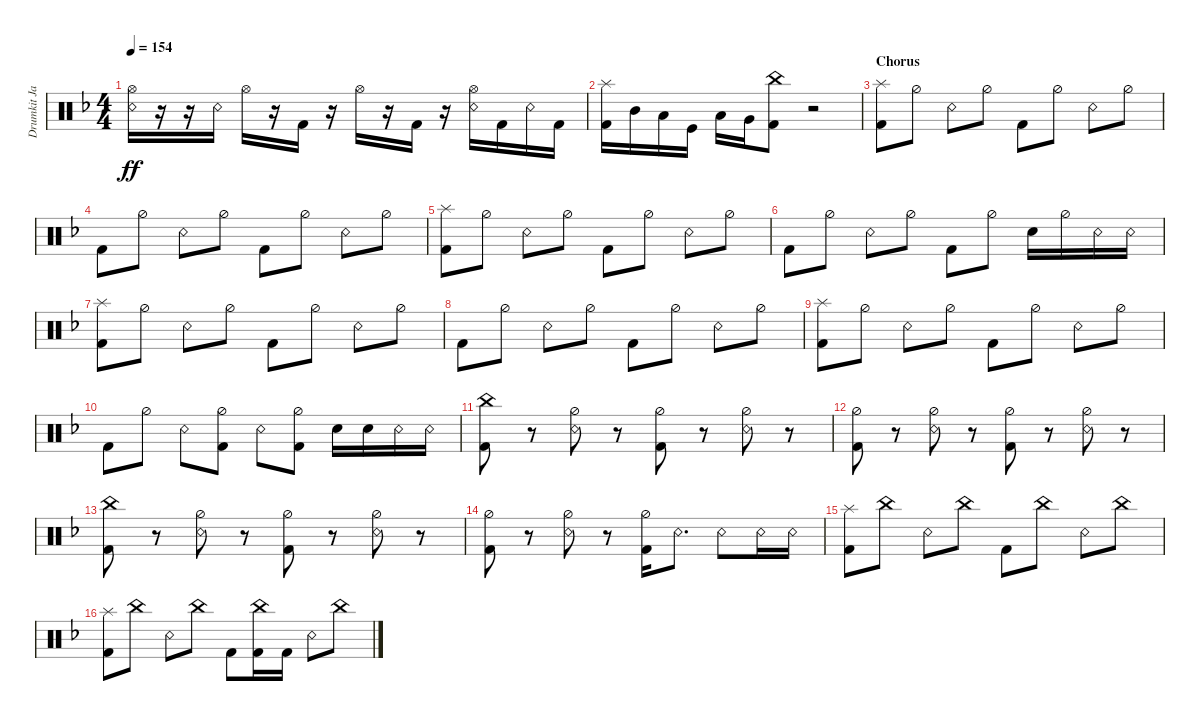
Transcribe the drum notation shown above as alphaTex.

\track ("Drumkit Jason" "Drumkit Ja") {instrument percussion}
\staff {score}
\articulation defaults
\ts (4 4)
\tempo 154
\clef neutral
\ks dminor
("Hi-Hat (open)" "Snare (rim shot)").16{dy ff} r.16 r.16 "Snare (rim shot)".16 "Hi-Hat (open)".16 r.16 "Kick (hit) 2".16 r.16 "Hi-Hat (open)".16 r.16 "Kick (hit) 2".16 r.16 ("Hi-Hat (open)" "Snare (rim shot)").16 "Kick (hit) 2".16 "Snare (rim shot)".16 "Kick (hit) 2".16 |
("Splash (hit)" "Kick (hit) 2").16 "Mid Tom (hit)".16 "Low Tom (hit)".16 "Kick (hit)".16 "Low Tom (hit)".16 "Very Low Tom (hit)".16 ("China (hit)" "Kick (hit) 2").8 r.2 |
\section ("" "Chorus")
("Kick (hit) 2" "Splash (hit)").8 "Hi-Hat (half)".8 "Snare (rim shot)".8 "Hi-Hat (half)".8 "Kick (hit) 2".8 "Hi-Hat (half)".8 "Snare (rim shot)".8 "Hi-Hat (half)".8 |
"Kick (hit) 2".8 "Hi-Hat (half)".8 "Snare (rim shot)".8 "Hi-Hat (half)".8 "Kick (hit) 2".8 "Hi-Hat (half)".8 "Snare (rim shot)".8 "Hi-Hat (half)".8 |
("Kick (hit) 2" "Splash (hit)").8 "Hi-Hat (half)".8 "Snare (rim shot)".8 "Hi-Hat (half)".8 "Kick (hit) 2".8 "Hi-Hat (half)".8 "Snare (rim shot)".8 "Hi-Hat (half)".8 |
"Kick (hit) 2".8 "Hi-Hat (half)".8 "Snare (rim shot)".8 "Hi-Hat (half)".8 "Kick (hit) 2".8 "Hi-Hat (half)".8 "Snare (hit) 2".16 "Hi-Hat (half)".16 "Snare (rim shot)".16 "Snare (rim shot)".16 |
("Kick (hit) 2" "Splash (hit)").8 "Hi-Hat (half)".8 "Snare (rim shot)".8 "Hi-Hat (half)".8 "Kick (hit) 2".8 "Hi-Hat (half)".8 "Snare (rim shot)".8 "Hi-Hat (half)".8 |
"Kick (hit) 2".8 "Hi-Hat (half)".8 "Snare (rim shot)".8 "Hi-Hat (half)".8 "Kick (hit) 2".8 "Hi-Hat (half)".8 "Snare (rim shot)".8 "Hi-Hat (half)".8 |
("Kick (hit) 2" "Splash (hit)").8 "Hi-Hat (half)".8 "Snare (rim shot)".8 "Hi-Hat (half)".8 "Kick (hit) 2".8 "Hi-Hat (half)".8 "Snare (rim shot)".8 "Hi-Hat (half)".8 |
"Kick (hit) 2".8 "Hi-Hat (half)".8 "Snare (rim shot)".8 ("Hi-Hat (half)" "Kick (hit) 2").8 "Snare (rim shot)".8 ("Hi-Hat (half)" "Kick (hit) 2").8 "Snare (hit) 2".16 "Snare (hit) 2".16 "Snare (rim shot)".16 "Snare (rim shot)".16 |
("China (hit)" "Kick (hit) 2").8 r.8 ("Hi-Hat (half)" "Snare (rim shot)").8 r.8 ("Hi-Hat (half)" "Kick (hit) 2").8 r.8 ("Hi-Hat (half)" "Snare (rim shot)").8 r.8 |
("Hi-Hat (half)" "Kick (hit) 2").8 r.8 ("Hi-Hat (half)" "Snare (rim shot)").8 r.8 ("Hi-Hat (half)" "Kick (hit) 2").8 r.8 ("Hi-Hat (half)" "Snare (rim shot)").8 r.8 |
("China (hit)" "Kick (hit) 2").8 r.8 ("Hi-Hat (half)" "Snare (rim shot)").8 r.8 ("Hi-Hat (half)" "Kick (hit) 2").8 r.8 ("Hi-Hat (half)" "Snare (rim shot)").8 r.8 |
("Hi-Hat (half)" "Kick (hit) 2").8 r.8 ("Hi-Hat (half)" "Snare (rim shot)").8 r.8 ("Hi-Hat (half)" "Kick (hit) 2").16 "Snare (rim shot)".8{d} "Snare (rim shot)".8 "Snare (rim shot)".16 "Snare (rim shot)".16 |
("Splash (hit)" "Kick (hit) 2").8 "China (hit)".8 "Snare (rim shot)".8 "China (hit)".8 "Kick (hit) 2".8 "China (hit)".8 "Snare (rim shot)".8 "China (hit)".8 |
("Splash (hit)" "Kick (hit) 2").8 "China (hit)".8 "Snare (rim shot)".8 "China (hit)".8 "Kick (hit) 2".8 ("China (hit)" "Kick (hit) 2").16 "Kick (hit) 2".16 "Snare (rim shot)".8 "China (hit)".8
